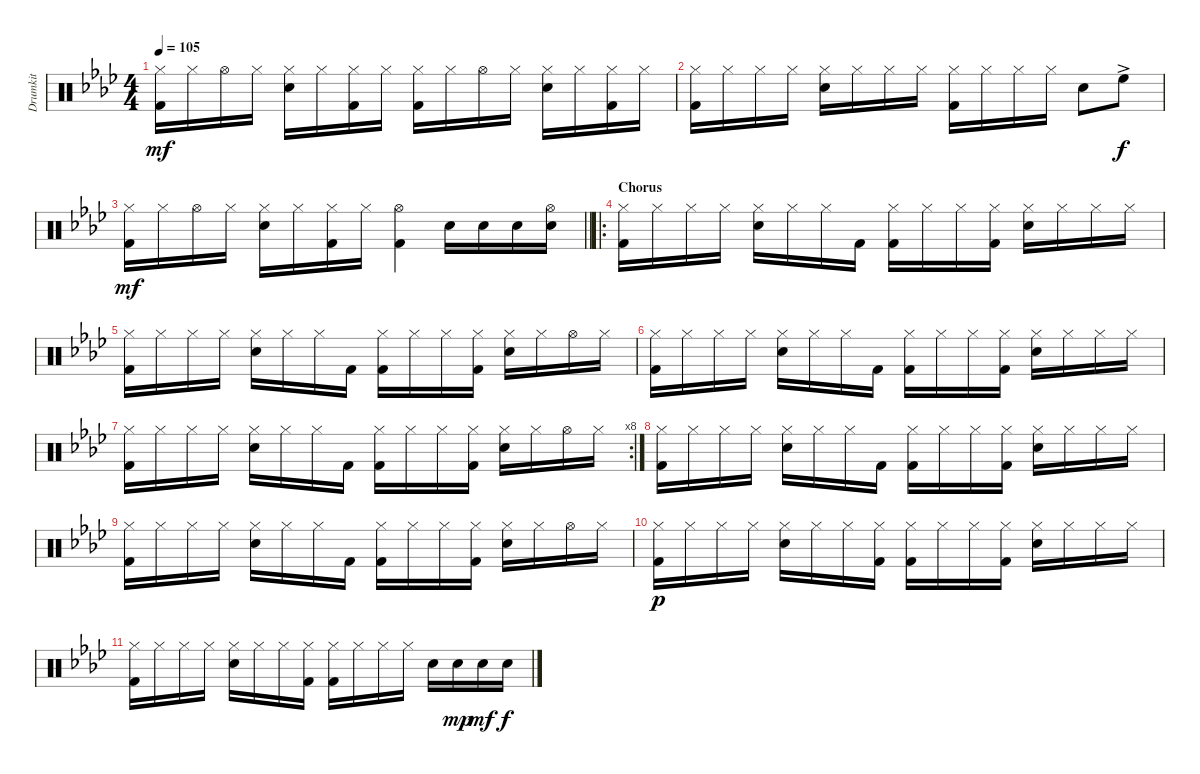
\track ("Drumkit" "Drumkit") {instrument percussion}
\staff {score}
\articulation defaults
\ts (4 4)
\tempo 105
\clef neutral
\ks ab
("Hi-Hat (closed)" "Kick (hit) 2").16{dy mf} "Hi-Hat (closed)".16 "Hi-Hat (open)".16 "Hi-Hat (closed)".16 ("Hi-Hat (closed)" "Snare (hit) 2").16 "Hi-Hat (closed)".16 ("Hi-Hat (closed)" "Kick (hit) 2").16 "Hi-Hat (closed)".16 ("Hi-Hat (closed)" "Kick (hit) 2").16 "Hi-Hat (closed)".16 "Hi-Hat (open)".16 "Hi-Hat (closed)".16 ("Hi-Hat (closed)" "Snare (hit) 2").16 "Hi-Hat (closed)".16 ("Hi-Hat (closed)" "Kick (hit) 2").16 "Hi-Hat (closed)".16 |
("Hi-Hat (closed)" "Kick (hit) 2").16 "Hi-Hat (closed)".16 "Hi-Hat (closed)".16 "Hi-Hat (closed)".16 ("Hi-Hat (closed)" "Snare (hit) 2").16 "Hi-Hat (closed)".16 "Hi-Hat (closed)".16 "Hi-Hat (closed)".16 ("Hi-Hat (closed)" "Kick (hit) 2").16 "Hi-Hat (closed)".16 "Hi-Hat (closed)".16 "Hi-Hat (closed)".16 "Snare (hit) 2".8 "High Floor Tom (hit)"{ac}.8{dy f} |
\barLineRight lightlight
("Hi-Hat (closed)" "Kick (hit) 2").16{dy mf} "Hi-Hat (closed)".16 "Hi-Hat (open)".16 "Hi-Hat (closed)".16 ("Hi-Hat (closed)" "Snare (hit) 2").16 "Hi-Hat (closed)".16 ("Hi-Hat (closed)" "Kick (hit) 2").16 "Hi-Hat (closed)".16 ("Kick (hit) 2" "Hi-Hat (open)").4 "Snare (hit) 2".16 "Snare (hit) 2".16 "Snare (hit) 2".16 ("Snare (hit) 2" "Hi-Hat (open)").16 |
\ro
\section ("" "Chorus")
("Kick (hit) 2" "Hi-Hat (closed)").16 "Hi-Hat (closed)".16 "Hi-Hat (closed)".16 "Hi-Hat (closed)".16 ("Snare (hit) 2" "Hi-Hat (closed)").16 "Hi-Hat (closed)".16 "Hi-Hat (closed)".16 "Kick (hit) 2".16 ("Kick (hit) 2" "Hi-Hat (closed)").16 "Hi-Hat (closed)".16 "Hi-Hat (closed)".16 ("Kick (hit) 2" "Hi-Hat (closed)").16 ("Snare (hit) 2" "Hi-Hat (closed)").16 "Hi-Hat (closed)".16 "Hi-Hat (closed)".16 "Hi-Hat (closed)".16 |
("Kick (hit) 2" "Hi-Hat (closed)").16 "Hi-Hat (closed)".16 "Hi-Hat (closed)".16 "Hi-Hat (closed)".16 ("Snare (hit) 2" "Hi-Hat (closed)").16 "Hi-Hat (closed)".16 "Hi-Hat (closed)".16 "Kick (hit) 2".16 ("Kick (hit) 2" "Hi-Hat (closed)").16 "Hi-Hat (closed)".16 "Hi-Hat (closed)".16 ("Kick (hit) 2" "Hi-Hat (closed)").16 ("Snare (hit) 2" "Hi-Hat (closed)").16 "Hi-Hat (closed)".16 "Hi-Hat (open)".16 "Hi-Hat (closed)".16 |
("Kick (hit) 2" "Hi-Hat (closed)").16 "Hi-Hat (closed)".16 "Hi-Hat (closed)".16 "Hi-Hat (closed)".16 ("Snare (hit) 2" "Hi-Hat (closed)").16 "Hi-Hat (closed)".16 "Hi-Hat (closed)".16 "Kick (hit) 2".16 ("Kick (hit) 2" "Hi-Hat (closed)").16 "Hi-Hat (closed)".16 "Hi-Hat (closed)".16 ("Kick (hit) 2" "Hi-Hat (closed)").16 ("Snare (hit) 2" "Hi-Hat (closed)").16 "Hi-Hat (closed)".16 "Hi-Hat (closed)".16 "Hi-Hat (closed)".16 |
\rc 8
("Kick (hit) 2" "Hi-Hat (closed)").16 "Hi-Hat (closed)".16 "Hi-Hat (closed)".16 "Hi-Hat (closed)".16 ("Snare (hit) 2" "Hi-Hat (closed)").16 "Hi-Hat (closed)".16 "Hi-Hat (closed)".16 "Kick (hit) 2".16 ("Kick (hit) 2" "Hi-Hat (closed)").16 "Hi-Hat (closed)".16 "Hi-Hat (closed)".16 ("Kick (hit) 2" "Hi-Hat (closed)").16 ("Snare (hit) 2" "Hi-Hat (closed)").16 "Hi-Hat (closed)".16 "Hi-Hat (open)".16 "Hi-Hat (closed)".16 |
("Kick (hit) 2" "Hi-Hat (closed)").16 "Hi-Hat (closed)".16 "Hi-Hat (closed)".16 "Hi-Hat (closed)".16 ("Snare (hit) 2" "Hi-Hat (closed)").16 "Hi-Hat (closed)".16 "Hi-Hat (closed)".16 "Kick (hit) 2".16 ("Kick (hit) 2" "Hi-Hat (closed)").16 "Hi-Hat (closed)".16 "Hi-Hat (closed)".16 ("Kick (hit) 2" "Hi-Hat (closed)").16 ("Snare (hit) 2" "Hi-Hat (closed)").16 "Hi-Hat (closed)".16 "Hi-Hat (closed)".16 "Hi-Hat (closed)".16 |
("Kick (hit) 2" "Hi-Hat (closed)").16 "Hi-Hat (closed)".16 "Hi-Hat (closed)".16 "Hi-Hat (closed)".16 ("Snare (hit) 2" "Hi-Hat (closed)").16 "Hi-Hat (closed)".16 "Hi-Hat (closed)".16 "Kick (hit) 2".16 ("Kick (hit) 2" "Hi-Hat (closed)").16 "Hi-Hat (closed)".16 "Hi-Hat (closed)".16 ("Kick (hit) 2" "Hi-Hat (closed)").16 ("Snare (hit) 2" "Hi-Hat (closed)").16 "Hi-Hat (closed)".16 "Hi-Hat (open)".16 "Hi-Hat (closed)".16 |
("Kick (hit) 2" "Hi-Hat (closed)").16{dy p} "Hi-Hat (closed)".16 "Hi-Hat (closed)".16 "Hi-Hat (closed)".16 ("Snare (hit) 2" "Hi-Hat (closed)").16 "Hi-Hat (closed)".16 "Hi-Hat (closed)".16 ("Kick (hit) 2" "Hi-Hat (closed)").16 ("Kick (hit) 2" "Hi-Hat (closed)").16 "Hi-Hat (closed)".16 "Hi-Hat (closed)".16 ("Kick (hit) 2" "Hi-Hat (closed)").16 ("Snare (hit) 2" "Hi-Hat (closed)").16 "Hi-Hat (closed)".16 "Hi-Hat (closed)".16 "Hi-Hat (closed)".16 |
("Kick (hit) 2" "Hi-Hat (closed)").16 "Hi-Hat (closed)".16 "Hi-Hat (closed)".16 "Hi-Hat (closed)".16 ("Snare (hit) 2" "Hi-Hat (closed)").16 "Hi-Hat (closed)".16 "Hi-Hat (closed)".16 ("Kick (hit) 2" "Hi-Hat (closed)").16 ("Kick (hit) 2" "Hi-Hat (closed)").16 "Hi-Hat (closed)".16 "Hi-Hat (closed)".16 "Hi-Hat (closed)".16 "Snare (hit) 2".16 "Snare (hit) 2".16{dy mp} "Snare (hit) 2".16{dy mf} "Snare (hit) 2".16{dy f}
